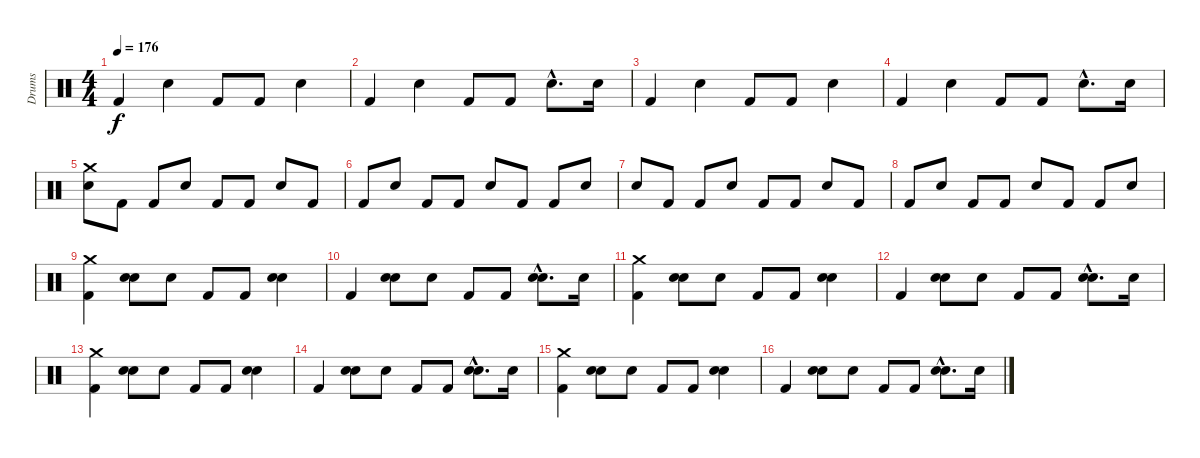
\track ("Drums" "Drums") {instrument percussion}
\staff {score}
\articulation defaults
\ts (4 4)
\tempo 176
\clef neutral
\ks c "Kick (hit) 2".4{dy f} "Snare (hit) 2".4 "Kick (hit) 2".8 "Kick (hit) 2".8 "Snare (hit) 2".4
|
"Kick (hit) 2".4 "Snare (hit) 2".4 "Kick (hit) 2".8 "Kick (hit) 2".8 "Snare (hit) 2"{hac}.8{d} "Snare (hit) 2".16 |
"Kick (hit) 2".4 "Snare (hit) 2".4 "Kick (hit) 2".8 "Kick (hit) 2".8 "Snare (hit) 2".4 |
"Kick (hit) 2".4 "Snare (hit) 2".4 "Kick (hit) 2".8 "Kick (hit) 2".8 "Snare (hit) 2"{hac}.8{d} "Snare (hit) 2".16 |
("Snare (hit) 2" "Crash medium (hit)").8 "Kick (hit) 2".8 "Kick (hit) 2".8 "Snare (hit) 2".8 "Kick (hit) 2".8 "Kick (hit) 2".8 "Snare (hit) 2".8 "Kick (hit) 2".8 |
"Kick (hit) 2".8 "Snare (hit) 2".8 "Kick (hit) 2".8 "Kick (hit) 2".8 "Snare (hit) 2".8 "Kick (hit) 2".8 "Kick (hit) 2".8 "Snare (hit) 2".8 |
"Snare (hit) 2".8 "Kick (hit) 2".8 "Kick (hit) 2".8 "Snare (hit) 2".8 "Kick (hit) 2".8 "Kick (hit) 2".8 "Snare (hit) 2".8 "Kick (hit) 2".8 |
"Kick (hit) 2".8 "Snare (hit) 2".8 "Kick (hit) 2".8 "Kick (hit) 2".8 "Snare (hit) 2".8 "Kick (hit) 2".8 "Kick (hit) 2".8 "Snare (hit) 2".8 |
("Kick (hit) 2" "Crash medium (hit)").4{volume 15} ("Snare (hit) 2" "Hand Clap (hit)").8 "Hand Clap (hit)".8 "Kick (hit) 2".8 "Kick (hit) 2".8 ("Snare (hit) 2" "Hand Clap (hit)").4 |
"Kick (hit) 2".4 ("Snare (hit) 2" "Hand Clap (hit)").8 "Hand Clap (hit)".8 "Kick (hit) 2".8 "Kick (hit) 2".8 ("Snare (hit) 2"{hac} "Hand Clap (hit)"{hac}).8{d} "Snare (hit) 2".16 |
("Kick (hit) 2" "Crash medium (hit)").4{volume 15} ("Snare (hit) 2" "Hand Clap (hit)").8 "Hand Clap (hit)".8 "Kick (hit) 2".8 "Kick (hit) 2".8 ("Snare (hit) 2" "Hand Clap (hit)").4 |
"Kick (hit) 2".4 ("Snare (hit) 2" "Hand Clap (hit)").8 "Hand Clap (hit)".8 "Kick (hit) 2".8 "Kick (hit) 2".8 ("Snare (hit) 2"{hac} "Hand Clap (hit)"{hac}).8{d} "Snare (hit) 2".16 |
("Kick (hit) 2" "Crash medium (hit)").4{volume 15} ("Snare (hit) 2" "Hand Clap (hit)").8 "Hand Clap (hit)".8 "Kick (hit) 2".8 "Kick (hit) 2".8 ("Snare (hit) 2" "Hand Clap (hit)").4 |
"Kick (hit) 2".4 ("Snare (hit) 2" "Hand Clap (hit)").8 "Hand Clap (hit)".8 "Kick (hit) 2".8 "Kick (hit) 2".8 ("Snare (hit) 2"{hac} "Hand Clap (hit)"{hac}).8{d} "Snare (hit) 2".16 |
("Kick (hit) 2" "Crash medium (hit)").4{volume 15} ("Snare (hit) 2" "Hand Clap (hit)").8 "Hand Clap (hit)".8 "Kick (hit) 2".8 "Kick (hit) 2".8 ("Snare (hit) 2" "Hand Clap (hit)").4 |
"Kick (hit) 2".4 ("Snare (hit) 2" "Hand Clap (hit)").8 "Hand Clap (hit)".8 "Kick (hit) 2".8 "Kick (hit) 2".8 ("Snare (hit) 2"{hac} "Hand Clap (hit)"{hac}).8{d} "Snare (hit) 2".16
